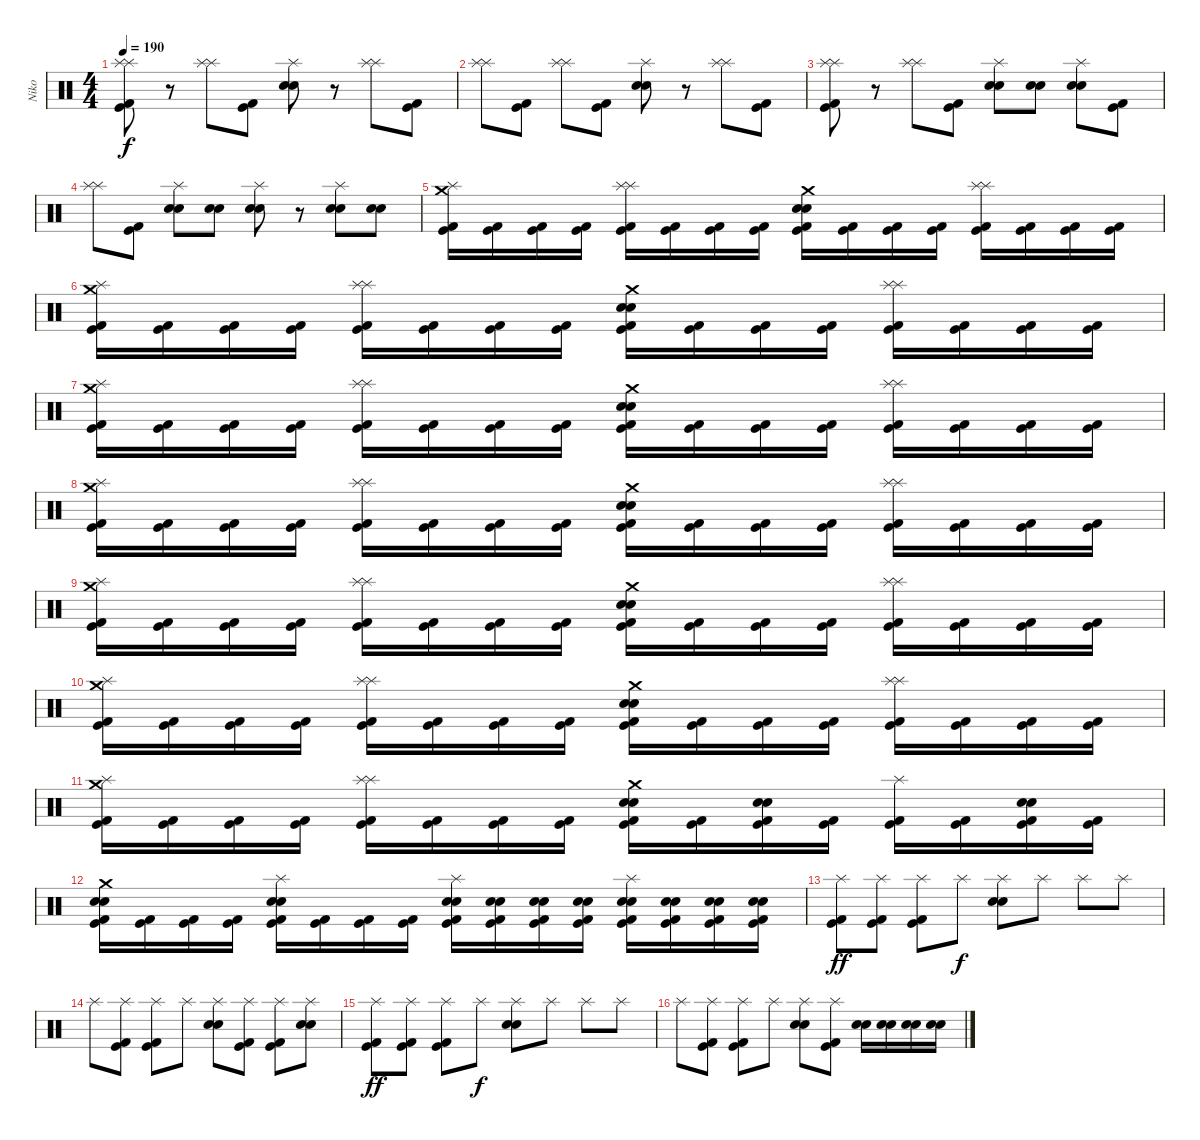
\track ("Niko" "Niko") {instrument percussion}
\staff {score}
\articulation defaults
\ts (4 4)
\tempo 190
\clef neutral
\ks c
("Splash (hit)" "Splash (hit)" "Kick (hit) 2" "Kick (hit)").8{dy f} r.8 ("Splash (hit)" "Splash (hit)").8 ("Kick (hit) 2" "Kick (hit)").8 ("Splash (hit)" "Electric Snare (hit)" "Electric Snare (hit)").8 r.8 ("Splash (hit)" "Splash (hit)").8 ("Kick (hit) 2" "Kick (hit)").8 |
("Splash (hit)" "Splash (hit)").8 ("Kick (hit) 2" "Kick (hit)").8 ("Splash (hit)" "Splash (hit)").8 ("Kick (hit) 2" "Kick (hit)").8 ("Splash (hit)" "Electric Snare (hit)" "Electric Snare (hit)").8 r.8 ("Splash (hit)" "Splash (hit)").8 ("Kick (hit) 2" "Kick (hit)").8 |
("Splash (hit)" "Splash (hit)" "Kick (hit)" "Kick (hit) 2").8 r.8 ("Splash (hit)" "Splash (hit)").8 ("Kick (hit) 2" "Kick (hit)").8 ("Splash (hit)" "Electric Snare (hit)" "Electric Snare (hit)").8 ("Electric Snare (hit)" "Electric Snare (hit)").8 ("Splash (hit)" "Electric Snare (hit)" "Electric Snare (hit)").8 ("Kick (hit) 2" "Kick (hit)").8 |
("Splash (hit)" "Splash (hit)").8 ("Kick (hit) 2" "Kick (hit)").8 ("Splash (hit)" "Electric Snare (hit)" "Electric Snare (hit)").8 ("Electric Snare (hit)" "Electric Snare (hit)").8 ("Splash (hit)" "Electric Snare (hit)" "Electric Snare (hit)").8 r.8 ("Splash (hit)" "Electric Snare (hit)" "Electric Snare (hit)").8 ("Electric Snare (hit)" "Electric Snare (hit)").8 |
("Crash medium (hit)" "Splash (hit)" "Kick (hit) 2" "Kick (hit)").16 ("Kick (hit)" "Kick (hit) 2").16 ("Kick (hit) 2" "Kick (hit)").16 ("Kick (hit) 2" "Kick (hit)").16 ("Splash (hit)" "Splash (hit)" "Kick (hit)" "Kick (hit) 2").16 ("Kick (hit) 2" "Kick (hit)").16 ("Kick (hit)" "Kick (hit) 2").16 ("Kick (hit)" "Kick (hit) 2").16 ("Crash medium (hit)" "Electric Snare (hit)" "Electric Snare (hit)" "Kick (hit) 2" "Kick (hit)").16 ("Kick (hit)" "Kick (hit) 2").16 ("Kick (hit)" "Kick (hit) 2").16 ("Kick (hit)" "Kick (hit) 2").16 ("Splash (hit)" "Splash (hit)" "Kick (hit)" "Kick (hit) 2").16 ("Kick (hit)" "Kick (hit) 2").16 ("Kick (hit)" "Kick (hit) 2").16 ("Kick (hit)" "Kick (hit) 2").16 |
("Crash medium (hit)" "Splash (hit)" "Kick (hit) 2" "Kick (hit)").16 ("Kick (hit)" "Kick (hit) 2").16 ("Kick (hit) 2" "Kick (hit)").16 ("Kick (hit) 2" "Kick (hit)").16 ("Splash (hit)" "Splash (hit)" "Kick (hit)" "Kick (hit) 2").16 ("Kick (hit) 2" "Kick (hit)").16 ("Kick (hit)" "Kick (hit) 2").16 ("Kick (hit)" "Kick (hit) 2").16 ("Crash medium (hit)" "Electric Snare (hit)" "Electric Snare (hit)" "Kick (hit) 2" "Kick (hit)").16 ("Kick (hit)" "Kick (hit) 2").16 ("Kick (hit)" "Kick (hit) 2").16 ("Kick (hit)" "Kick (hit) 2").16 ("Splash (hit)" "Splash (hit)" "Kick (hit)" "Kick (hit) 2").16 ("Kick (hit)" "Kick (hit) 2").16 ("Kick (hit)" "Kick (hit) 2").16 ("Kick (hit)" "Kick (hit) 2").16 |
("Crash medium (hit)" "Splash (hit)" "Kick (hit) 2" "Kick (hit)").16 ("Kick (hit)" "Kick (hit) 2").16 ("Kick (hit) 2" "Kick (hit)").16 ("Kick (hit) 2" "Kick (hit)").16 ("Splash (hit)" "Splash (hit)" "Kick (hit)" "Kick (hit) 2").16 ("Kick (hit) 2" "Kick (hit)").16 ("Kick (hit)" "Kick (hit) 2").16 ("Kick (hit)" "Kick (hit) 2").16 ("Crash medium (hit)" "Electric Snare (hit)" "Electric Snare (hit)" "Kick (hit) 2" "Kick (hit)").16 ("Kick (hit)" "Kick (hit) 2").16 ("Kick (hit)" "Kick (hit) 2").16 ("Kick (hit)" "Kick (hit) 2").16 ("Splash (hit)" "Splash (hit)" "Kick (hit)" "Kick (hit) 2").16 ("Kick (hit)" "Kick (hit) 2").16 ("Kick (hit)" "Kick (hit) 2").16 ("Kick (hit)" "Kick (hit) 2").16 |
("Crash medium (hit)" "Splash (hit)" "Kick (hit) 2" "Kick (hit)").16 ("Kick (hit)" "Kick (hit) 2").16 ("Kick (hit) 2" "Kick (hit)").16 ("Kick (hit) 2" "Kick (hit)").16 ("Splash (hit)" "Splash (hit)" "Kick (hit)" "Kick (hit) 2").16 ("Kick (hit) 2" "Kick (hit)").16 ("Kick (hit)" "Kick (hit) 2").16 ("Kick (hit)" "Kick (hit) 2").16 ("Crash medium (hit)" "Electric Snare (hit)" "Electric Snare (hit)" "Kick (hit) 2" "Kick (hit)").16 ("Kick (hit)" "Kick (hit) 2").16 ("Kick (hit)" "Kick (hit) 2").16 ("Kick (hit)" "Kick (hit) 2").16 ("Splash (hit)" "Splash (hit)" "Kick (hit)" "Kick (hit) 2").16 ("Kick (hit)" "Kick (hit) 2").16 ("Kick (hit)" "Kick (hit) 2").16 ("Kick (hit)" "Kick (hit) 2").16 |
("Crash medium (hit)" "Splash (hit)" "Kick (hit) 2" "Kick (hit)").16 ("Kick (hit)" "Kick (hit) 2").16 ("Kick (hit) 2" "Kick (hit)").16 ("Kick (hit) 2" "Kick (hit)").16 ("Splash (hit)" "Splash (hit)" "Kick (hit)" "Kick (hit) 2").16 ("Kick (hit) 2" "Kick (hit)").16 ("Kick (hit)" "Kick (hit) 2").16 ("Kick (hit)" "Kick (hit) 2").16 ("Crash medium (hit)" "Electric Snare (hit)" "Electric Snare (hit)" "Kick (hit) 2" "Kick (hit)").16 ("Kick (hit)" "Kick (hit) 2").16 ("Kick (hit)" "Kick (hit) 2").16 ("Kick (hit)" "Kick (hit) 2").16 ("Splash (hit)" "Splash (hit)" "Kick (hit)" "Kick (hit) 2").16 ("Kick (hit)" "Kick (hit) 2").16 ("Kick (hit)" "Kick (hit) 2").16 ("Kick (hit)" "Kick (hit) 2").16 |
("Crash medium (hit)" "Splash (hit)" "Kick (hit) 2" "Kick (hit)").16 ("Kick (hit)" "Kick (hit) 2").16 ("Kick (hit) 2" "Kick (hit)").16 ("Kick (hit) 2" "Kick (hit)").16 ("Splash (hit)" "Splash (hit)" "Kick (hit)" "Kick (hit) 2").16 ("Kick (hit) 2" "Kick (hit)").16 ("Kick (hit)" "Kick (hit) 2").16 ("Kick (hit)" "Kick (hit) 2").16 ("Crash medium (hit)" "Electric Snare (hit)" "Electric Snare (hit)" "Kick (hit) 2" "Kick (hit)").16 ("Kick (hit)" "Kick (hit) 2").16 ("Kick (hit)" "Kick (hit) 2").16 ("Kick (hit)" "Kick (hit) 2").16 ("Splash (hit)" "Splash (hit)" "Kick (hit)" "Kick (hit) 2").16 ("Kick (hit)" "Kick (hit) 2").16 ("Kick (hit)" "Kick (hit) 2").16 ("Kick (hit)" "Kick (hit) 2").16 |
("Crash medium (hit)" "Splash (hit)" "Kick (hit) 2" "Kick (hit)").16 ("Kick (hit)" "Kick (hit) 2").16 ("Kick (hit) 2" "Kick (hit)").16 ("Kick (hit) 2" "Kick (hit)").16 ("Splash (hit)" "Splash (hit)" "Kick (hit)" "Kick (hit) 2").16 ("Kick (hit) 2" "Kick (hit)").16 ("Kick (hit)" "Kick (hit) 2").16 ("Kick (hit)" "Kick (hit) 2").16 ("Crash medium (hit)" "Electric Snare (hit)" "Electric Snare (hit)" "Kick (hit) 2" "Kick (hit)").16 ("Kick (hit)" "Kick (hit) 2").16 ("Electric Snare (hit)" "Electric Snare (hit)" "Kick (hit)" "Kick (hit) 2").16 ("Kick (hit)" "Kick (hit) 2").16 ("Splash (hit)" "Kick (hit)" "Kick (hit) 2").16 ("Kick (hit)" "Kick (hit) 2").16 ("Electric Snare (hit)" "Electric Snare (hit)" "Kick (hit)" "Kick (hit) 2").16 ("Kick (hit)" "Kick (hit) 2").16 |
("Crash medium (hit)" "Electric Snare (hit)" "Electric Snare (hit)" "Kick (hit) 2" "Kick (hit)").16 ("Kick (hit)" "Kick (hit) 2").16 ("Kick (hit) 2" "Kick (hit)").16 ("Kick (hit) 2" "Kick (hit)").16 ("Splash (hit)" "Electric Snare (hit)" "Electric Snare (hit)" "Kick (hit)" "Kick (hit) 2").16 ("Kick (hit) 2" "Kick (hit)").16 ("Kick (hit)" "Kick (hit) 2").16 ("Kick (hit)" "Kick (hit) 2").16 ("Splash (hit)" "Electric Snare (hit)" "Electric Snare (hit)" "Kick (hit) 2" "Kick (hit)").16 ("Electric Snare (hit)" "Electric Snare (hit)" "Kick (hit)" "Kick (hit) 2").16 ("Electric Snare (hit)" "Electric Snare (hit)" "Kick (hit)" "Kick (hit) 2").16 ("Electric Snare (hit)" "Electric Snare (hit)" "Kick (hit)" "Kick (hit) 2").16 ("Splash (hit)" "Electric Snare (hit)" "Electric Snare (hit)" "Kick (hit)" "Kick (hit) 2").16 ("Electric Snare (hit)" "Electric Snare (hit)" "Kick (hit)" "Kick (hit) 2").16 ("Electric Snare (hit)" "Electric Snare (hit)" "Kick (hit)" "Kick (hit) 2").16 ("Electric Snare (hit)" "Electric Snare (hit)" "Kick (hit)" "Kick (hit) 2").16 |
("Splash (hit)" "Kick (hit) 2" "Kick (hit)").8{dy ff} ("Splash (hit)" "Kick (hit)" "Kick (hit) 2").8 ("Splash (hit)" "Kick (hit)" "Kick (hit) 2").8 "Splash (hit)".8{dy f} ("Splash (hit)" "Electric Snare (hit)" "Electric Snare (hit)").8 "Splash (hit)".8 "Splash (hit)".8 "Splash (hit)".8 |
"Splash (hit)".8 ("Splash (hit)" "Kick (hit) 2" "Kick (hit)").8 ("Splash (hit)" "Kick (hit)" "Kick (hit) 2").8 "Splash (hit)".8 ("Splash (hit)" "Electric Snare (hit)" "Electric Snare (hit)").8 ("Splash (hit)" "Kick (hit) 2" "Kick (hit)").8 ("Splash (hit)" "Kick (hit) 2" "Kick (hit)").8 ("Splash (hit)" "Electric Snare (hit)" "Electric Snare (hit)").8 |
("Splash (hit)" "Kick (hit) 2" "Kick (hit)").8{dy ff} ("Splash (hit)" "Kick (hit)" "Kick (hit) 2").8 ("Splash (hit)" "Kick (hit)" "Kick (hit) 2").8 "Splash (hit)".8{dy f} ("Splash (hit)" "Electric Snare (hit)" "Electric Snare (hit)").8 "Splash (hit)".8 "Splash (hit)".8 "Splash (hit)".8 |
"Splash (hit)".8 ("Splash (hit)" "Kick (hit) 2" "Kick (hit)").8 ("Splash (hit)" "Kick (hit)" "Kick (hit) 2").8 "Splash (hit)".8 ("Splash (hit)" "Electric Snare (hit)" "Electric Snare (hit)").8 ("Splash (hit)" "Kick (hit) 2" "Kick (hit)").8 ("Electric Snare (hit)" "Electric Snare (hit)").16 ("Electric Snare (hit)" "Electric Snare (hit)").16 ("Electric Snare (hit)" "Electric Snare (hit)").16 ("Electric Snare (hit)" "Electric Snare (hit)").16
